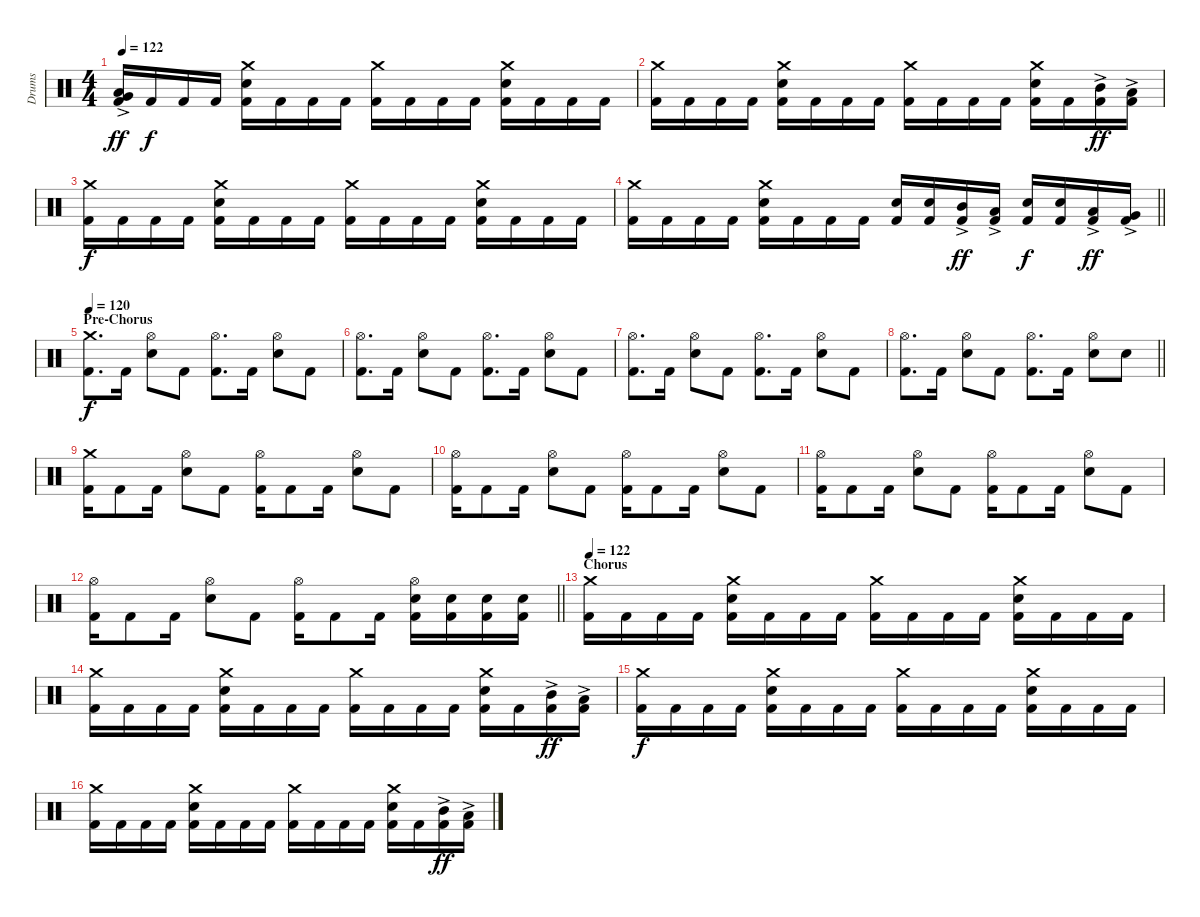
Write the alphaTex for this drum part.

\track ("Drums" "Drums") {instrument percussion}
\staff {score}
\articulation defaults
\ts (4 4)
\tempo 122
\clef neutral
\ks c
("Kick (hit) 2" "Low Tom (hit)"{ac} "Very Low Tom (hit)").16{dy ff} "Kick (hit) 2".16{dy f} "Kick (hit) 2".16 "Kick (hit) 2".16 ("Kick (hit) 2" "Snare (hit) 2" "Crash medium (hit)").16 "Kick (hit) 2".16 "Kick (hit) 2".16 "Kick (hit) 2".16 ("Kick (hit) 2" "Crash medium (hit)").16 "Kick (hit) 2".16 "Kick (hit) 2".16 "Kick (hit) 2".16 ("Kick (hit) 2" "Snare (hit) 2" "Crash medium (hit)").16 "Kick (hit) 2".16 "Kick (hit) 2".16 "Kick (hit) 2".16 |
("Kick (hit) 2" "Crash medium (hit)").16 "Kick (hit) 2".16 "Kick (hit) 2".16 "Kick (hit) 2".16 ("Kick (hit) 2" "Snare (hit) 2" "Crash medium (hit)").16 "Kick (hit) 2".16 "Kick (hit) 2".16 "Kick (hit) 2".16 ("Kick (hit) 2" "Crash medium (hit)").16 "Kick (hit) 2".16 "Kick (hit) 2".16 "Kick (hit) 2".16 ("Kick (hit) 2" "Snare (hit) 2" "Crash medium (hit)").16 "Kick (hit) 2".16 ("Kick (hit) 2" "Mid Tom (hit)"{ac}).16{dy ff} ("Kick (hit) 2" "Low Tom (hit)"{ac}).16 |
("Kick (hit) 2" "Crash medium (hit)").16{dy f} "Kick (hit) 2".16 "Kick (hit) 2".16 "Kick (hit) 2".16 ("Kick (hit) 2" "Snare (hit) 2" "Crash medium (hit)").16 "Kick (hit) 2".16 "Kick (hit) 2".16 "Kick (hit) 2".16 ("Kick (hit) 2" "Crash medium (hit)").16 "Kick (hit) 2".16 "Kick (hit) 2".16 "Kick (hit) 2".16 ("Kick (hit) 2" "Snare (hit) 2" "Crash medium (hit)").16 "Kick (hit) 2".16 "Kick (hit) 2".16 "Kick (hit) 2".16 |
\barLineRight lightlight
("Kick (hit) 2" "Crash medium (hit)").16 "Kick (hit) 2".16 "Kick (hit) 2".16 "Kick (hit) 2".16 ("Kick (hit) 2" "Snare (hit) 2" "Crash medium (hit)").16 "Kick (hit) 2".16 "Kick (hit) 2".16 "Kick (hit) 2".16 ("Kick (hit) 2" "Snare (hit) 2").16 ("Kick (hit) 2" "Snare (hit) 2").16 ("Kick (hit) 2" "Mid Tom (hit)"{ac}).16{dy ff} ("Kick (hit) 2" "Low Tom (hit)"{ac}).16 ("Kick (hit) 2" "Snare (hit) 2").16{dy f} ("Kick (hit) 2" "Snare (hit) 2").16 ("Kick (hit) 2" "Low Tom (hit)"{ac}).16{dy ff} ("Kick (hit) 2" "Very Low Tom (hit)"{ac}).16 |
\section ("" "Pre-Chorus")
\tempo 120
("Kick (hit) 2" "Crash medium (hit)").8{d dy f} "Kick (hit) 2".16 ("Snare (hit) 2" "Hi-Hat (open)").8 "Kick (hit) 2".8 ("Kick (hit) 2" "Hi-Hat (open)").8{d} "Kick (hit) 2".16 ("Snare (hit) 2" "Hi-Hat (open)").8 "Kick (hit) 2".8 |
("Kick (hit) 2" "Hi-Hat (open)").8{d} "Kick (hit) 2".16 ("Snare (hit) 2" "Hi-Hat (open)").8 "Kick (hit) 2".8 ("Kick (hit) 2" "Hi-Hat (open)").8{d} "Kick (hit) 2".16 ("Snare (hit) 2" "Hi-Hat (open)").8 "Kick (hit) 2".8 |
("Kick (hit) 2" "Hi-Hat (open)").8{d} "Kick (hit) 2".16 ("Snare (hit) 2" "Hi-Hat (open)").8 "Kick (hit) 2".8 ("Kick (hit) 2" "Hi-Hat (open)").8{d} "Kick (hit) 2".16 ("Snare (hit) 2" "Hi-Hat (open)").8 "Kick (hit) 2".8 |
\barLineRight lightlight
("Kick (hit) 2" "Hi-Hat (open)").8{d} "Kick (hit) 2".16 ("Snare (hit) 2" "Hi-Hat (open)").8 "Kick (hit) 2".8 ("Kick (hit) 2" "Hi-Hat (open)").8{d} "Kick (hit) 2".16 ("Snare (hit) 2" "Hi-Hat (open)").8 "Snare (hit) 2".8 |
\section ("" "")
("Kick (hit) 2" "Crash medium (hit)").16 "Kick (hit) 2".8 "Kick (hit) 2".16 ("Snare (hit) 2" "Hi-Hat (open)").8 "Kick (hit) 2".8 ("Kick (hit) 2" "Hi-Hat (open)").16 "Kick (hit) 2".8 "Kick (hit) 2".16 ("Snare (hit) 2" "Hi-Hat (open)").8 "Kick (hit) 2".8 |
("Kick (hit) 2" "Hi-Hat (open)").16 "Kick (hit) 2".8 "Kick (hit) 2".16 ("Snare (hit) 2" "Hi-Hat (open)").8 "Kick (hit) 2".8 ("Kick (hit) 2" "Hi-Hat (open)").16 "Kick (hit) 2".8 "Kick (hit) 2".16 ("Snare (hit) 2" "Hi-Hat (open)").8 "Kick (hit) 2".8 |
("Kick (hit) 2" "Hi-Hat (open)").16 "Kick (hit) 2".8 "Kick (hit) 2".16 ("Snare (hit) 2" "Hi-Hat (open)").8 "Kick (hit) 2".8 ("Kick (hit) 2" "Hi-Hat (open)").16 "Kick (hit) 2".8 "Kick (hit) 2".16 ("Snare (hit) 2" "Hi-Hat (open)").8 "Kick (hit) 2".8 |
\barLineRight lightlight
("Kick (hit) 2" "Hi-Hat (open)").16 "Kick (hit) 2".8 "Kick (hit) 2".16 ("Snare (hit) 2" "Hi-Hat (open)").8 "Kick (hit) 2".8 ("Kick (hit) 2" "Hi-Hat (open)").16 "Kick (hit) 2".8 "Kick (hit) 2".16 ("Kick (hit) 2" "Snare (hit) 2" "Hi-Hat (open)").16 ("Kick (hit) 2" "Snare (hit) 2").16 ("Kick (hit) 2" "Snare (hit) 2").16 ("Kick (hit) 2" "Snare (hit) 2").16 |
\section ("" "Chorus")
\tempo 122
("Kick (hit) 2" "Crash medium (hit)").16 "Kick (hit) 2".16 "Kick (hit) 2".16 "Kick (hit) 2".16 ("Kick (hit) 2" "Snare (hit) 2" "Crash medium (hit)").16 "Kick (hit) 2".16 "Kick (hit) 2".16 "Kick (hit) 2".16 ("Kick (hit) 2" "Crash medium (hit)").16 "Kick (hit) 2".16 "Kick (hit) 2".16 "Kick (hit) 2".16 ("Kick (hit) 2" "Snare (hit) 2" "Crash medium (hit)").16 "Kick (hit) 2".16 "Kick (hit) 2".16 "Kick (hit) 2".16 |
("Kick (hit) 2" "Crash medium (hit)").16 "Kick (hit) 2".16 "Kick (hit) 2".16 "Kick (hit) 2".16 ("Kick (hit) 2" "Snare (hit) 2" "Crash medium (hit)").16 "Kick (hit) 2".16 "Kick (hit) 2".16 "Kick (hit) 2".16 ("Kick (hit) 2" "Crash medium (hit)").16 "Kick (hit) 2".16 "Kick (hit) 2".16 "Kick (hit) 2".16 ("Kick (hit) 2" "Snare (hit) 2" "Crash medium (hit)").16 "Kick (hit) 2".16 ("Kick (hit) 2" "Mid Tom (hit)"{ac}).16{dy ff} ("Kick (hit) 2" "Low Tom (hit)"{ac}).16 |
("Kick (hit) 2" "Crash medium (hit)").16{dy f} "Kick (hit) 2".16 "Kick (hit) 2".16 "Kick (hit) 2".16 ("Kick (hit) 2" "Snare (hit) 2" "Crash medium (hit)").16 "Kick (hit) 2".16 "Kick (hit) 2".16 "Kick (hit) 2".16 ("Kick (hit) 2" "Crash medium (hit)").16 "Kick (hit) 2".16 "Kick (hit) 2".16 "Kick (hit) 2".16 ("Kick (hit) 2" "Snare (hit) 2" "Crash medium (hit)").16 "Kick (hit) 2".16 "Kick (hit) 2".16 "Kick (hit) 2".16 |
("Kick (hit) 2" "Crash medium (hit)").16 "Kick (hit) 2".16 "Kick (hit) 2".16 "Kick (hit) 2".16 ("Kick (hit) 2" "Snare (hit) 2" "Crash medium (hit)").16 "Kick (hit) 2".16 "Kick (hit) 2".16 "Kick (hit) 2".16 ("Kick (hit) 2" "Crash medium (hit)").16 "Kick (hit) 2".16 "Kick (hit) 2".16 "Kick (hit) 2".16 ("Kick (hit) 2" "Snare (hit) 2" "Crash medium (hit)").16 "Kick (hit) 2".16 ("Kick (hit) 2" "Mid Tom (hit)"{ac}).16{dy ff} ("Kick (hit) 2" "Low Tom (hit)"{ac}).16
